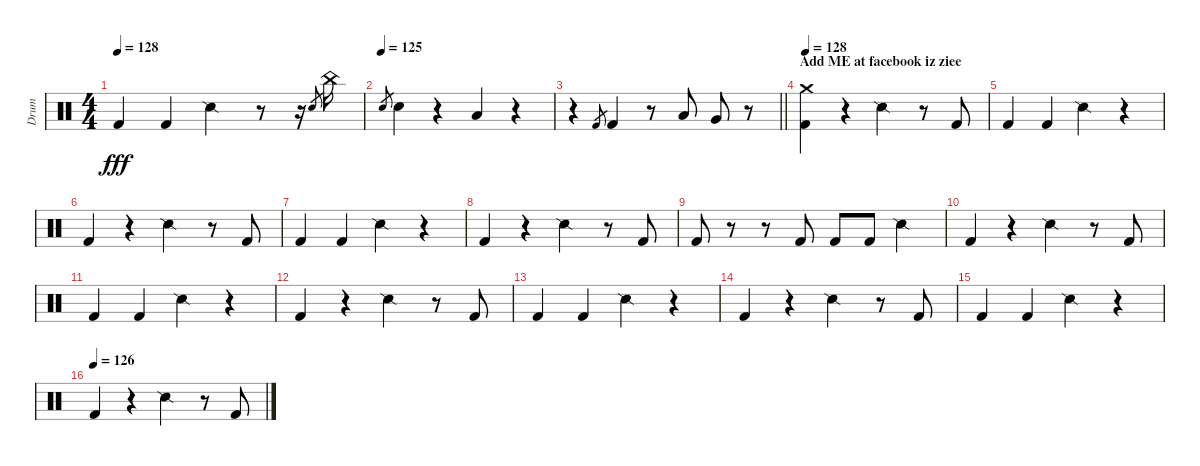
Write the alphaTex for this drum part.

\track ("Drum" "Drum") {instrument percussion}
\staff {score}
\articulation defaults
\ts (4 4)
\tempo 128
\clef neutral
\ks c "Kick (hit) 2".4{dy fff} "Kick (hit) 2".4 "Snare (side stick) 2".4
r.8 r.16 "Electric Snare (hit)".8{gr} "China (hit)".16 |
\tempo (125)
"Electric Snare (hit)".8{gr} "Electric Snare (hit)".4 r.4 "Low Tom (hit)".4 r.4 |
\barLineRight lightlight
r.4 "Kick (hit) 2".8{gr} "Kick (hit) 2".4 r.8 "Low Tom (hit)".8 "Very Low Tom (hit)".8 r.8 |
\section ("" "Add ME at facebook iz ziee")
\tempo 128
("Kick (hit) 2" "Crash medium (hit)").4 r.4 "Snare (side stick) 2".4 r.8 "Kick (hit) 2".8 |
"Kick (hit) 2".4 "Kick (hit) 2".4 "Snare (side stick) 2".4 r.4 |
"Kick (hit) 2".4 r.4 "Snare (side stick) 2".4 r.8 "Kick (hit) 2".8 |
"Kick (hit) 2".4 "Kick (hit) 2".4 "Snare (side stick) 2".4 r.4 |
"Kick (hit) 2".4 r.4 "Snare (side stick) 2".4 r.8 "Kick (hit) 2".8 |
"Kick (hit) 2".8 r.8 r.8 "Kick (hit) 2".8 "Kick (hit) 2".8 "Kick (hit) 2".8 "Snare (side stick) 2".4 |
"Kick (hit) 2".4 r.4 "Snare (side stick) 2".4 r.8 "Kick (hit) 2".8 |
"Kick (hit) 2".4 "Kick (hit) 2".4 "Snare (side stick) 2".4 r.4 |
"Kick (hit) 2".4 r.4 "Snare (side stick) 2".4 r.8 "Kick (hit) 2".8 |
"Kick (hit) 2".4 "Kick (hit) 2".4 "Snare (side stick) 2".4 r.4 |
"Kick (hit) 2".4 r.4 "Snare (side stick) 2".4 r.8 "Kick (hit) 2".8 |
"Kick (hit) 2".4 "Kick (hit) 2".4 "Snare (side stick) 2".4 r.4 |
\tempo (126)
"Kick (hit) 2".4 r.4 "Snare (side stick) 2".4 r.8 "Kick (hit) 2".8
